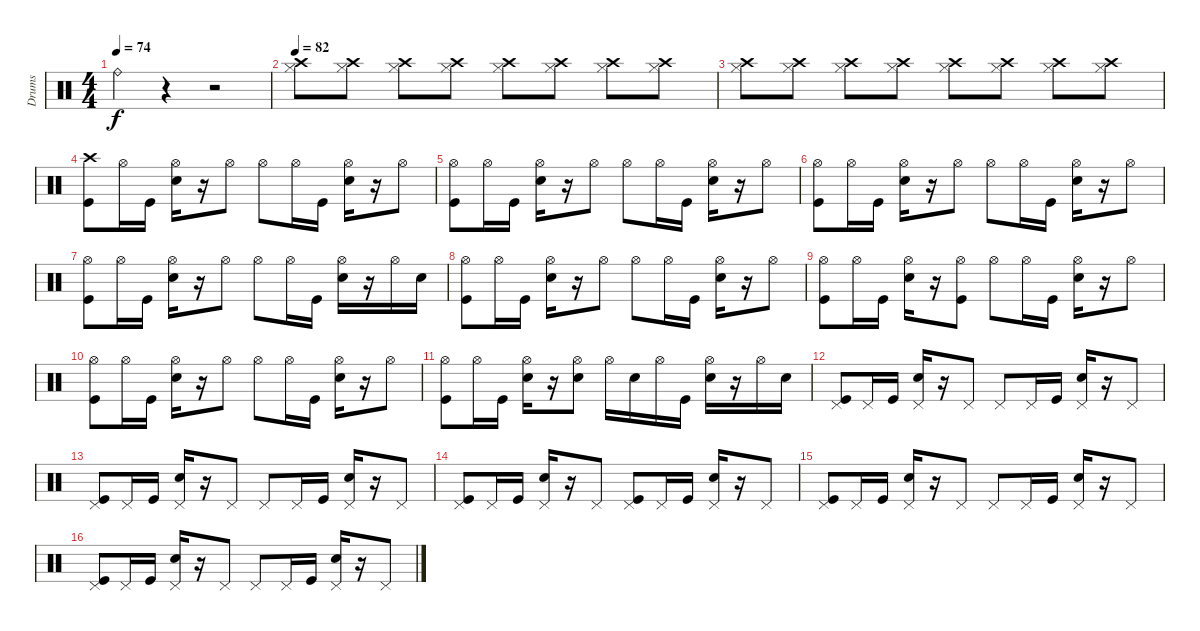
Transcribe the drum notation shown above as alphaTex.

\track ("Drums" "Drums") {instrument percussion}
\staff {score}
\articulation defaults
\ts (4 4)
\tempo 74
\clef neutral
\ks c "Ride (bell)".4{dy f}
r.4 r.2{volume 0} |
\tempo 82
("Crash high (hit)" "Hi-Hat (closed)").8{volume 16} ("Crash high (hit)" "Hi-Hat (closed)").8 ("Crash high (hit)" "Hi-Hat (closed)").8 ("Crash high (hit)" "Hi-Hat (closed)").8 ("Crash high (hit)" "Hi-Hat (closed)").8 ("Crash high (hit)" "Hi-Hat (closed)").8 ("Crash high (hit)" "Hi-Hat (closed)").8 ("Crash high (hit)" "Hi-Hat (closed)").8 |
("Crash high (hit)" "Hi-Hat (closed)").8 ("Crash high (hit)" "Hi-Hat (closed)").8 ("Crash high (hit)" "Hi-Hat (closed)").8 ("Crash high (hit)" "Hi-Hat (closed)").8 ("Crash high (hit)" "Hi-Hat (closed)").8 ("Crash high (hit)" "Hi-Hat (closed)").8 ("Crash high (hit)" "Hi-Hat (closed)").8 ("Crash high (hit)" "Hi-Hat (closed)").8 |
("Crash high (hit)" "Kick (hit)").8 "Hi-Hat (open)".16 "Kick (hit)".16 ("Hi-Hat (open)" "Snare (hit) 2").16 r.16 "Hi-Hat (open)".8 "Hi-Hat (open)".8 "Hi-Hat (open)".16 "Kick (hit)".16 ("Hi-Hat (open)" "Snare (hit) 2").16 r.16 "Hi-Hat (open)".8 |
("Hi-Hat (open)" "Kick (hit)").8 "Hi-Hat (open)".16 "Kick (hit)".16 ("Hi-Hat (open)" "Snare (hit) 2").16 r.16 "Hi-Hat (open)".8 "Hi-Hat (open)".8 "Hi-Hat (open)".16 "Kick (hit)".16 ("Hi-Hat (open)" "Snare (hit) 2").16 r.16 "Hi-Hat (open)".8 |
("Hi-Hat (open)" "Kick (hit)").8 "Hi-Hat (open)".16 "Kick (hit)".16 ("Hi-Hat (open)" "Snare (hit) 2").16 r.16 "Hi-Hat (open)".8 "Hi-Hat (open)".8 "Hi-Hat (open)".16 "Kick (hit)".16 ("Hi-Hat (open)" "Snare (hit) 2").16 r.16 "Hi-Hat (open)".8 |
("Hi-Hat (open)" "Kick (hit)").8 "Hi-Hat (open)".16 "Kick (hit)".16 ("Hi-Hat (open)" "Snare (hit) 2").16 r.16 "Hi-Hat (open)".8 "Hi-Hat (open)".8 "Hi-Hat (open)".16 "Kick (hit)".16 ("Hi-Hat (open)" "Snare (hit) 2").16 r.16 "Hi-Hat (open)".16 "Snare (hit) 2".16 |
("Hi-Hat (open)" "Kick (hit)").8 "Hi-Hat (open)".16 "Kick (hit)".16 ("Hi-Hat (open)" "Snare (hit) 2").16 r.16 "Hi-Hat (open)".8 "Hi-Hat (open)".8 "Hi-Hat (open)".16 "Kick (hit)".16 ("Hi-Hat (open)" "Snare (hit) 2").16 r.16 "Hi-Hat (open)".8 |
("Hi-Hat (open)" "Kick (hit)").8 "Hi-Hat (open)".16 "Kick (hit)".16 ("Hi-Hat (open)" "Snare (hit) 2").16 r.16 ("Hi-Hat (open)" "Kick (hit)").8 "Hi-Hat (open)".8 "Hi-Hat (open)".16 "Kick (hit)".16 ("Hi-Hat (open)" "Snare (hit) 2").16 r.16 "Hi-Hat (open)".8 |
("Hi-Hat (open)" "Kick (hit)").8 "Hi-Hat (open)".16 "Kick (hit)".16 ("Hi-Hat (open)" "Snare (hit) 2").16 r.16 "Hi-Hat (open)".8 "Hi-Hat (open)".8 "Hi-Hat (open)".16 "Kick (hit)".16 ("Hi-Hat (open)" "Snare (hit) 2").16 r.16 "Hi-Hat (open)".8 |
("Hi-Hat (open)" "Kick (hit)").8 "Hi-Hat (open)".16 "Kick (hit)".16 ("Hi-Hat (open)" "Snare (hit) 2").16 r.16 ("Hi-Hat (open)" "Snare (hit) 2").8 "Hi-Hat (open)".16 "Snare (hit) 2".16 "Hi-Hat (open)".16 "Kick (hit)".16 ("Hi-Hat (open)" "Snare (hit) 2").16 r.16 "Hi-Hat (open)".16 "Snare (hit) 2".16 |
("Pedal Hi-Hat (hit)" "Kick (hit)").8 "Pedal Hi-Hat (hit)".16 "Kick (hit)".16 ("Pedal Hi-Hat (hit)" "Snare (hit) 2").16 r.16 "Pedal Hi-Hat (hit)".8 "Pedal Hi-Hat (hit)".8 "Pedal Hi-Hat (hit)".16 "Kick (hit)".16 ("Pedal Hi-Hat (hit)" "Snare (hit) 2").16 r.16 "Pedal Hi-Hat (hit)".8 |
("Pedal Hi-Hat (hit)" "Kick (hit)").8 "Pedal Hi-Hat (hit)".16 "Kick (hit)".16 ("Pedal Hi-Hat (hit)" "Snare (hit) 2").16 r.16 "Pedal Hi-Hat (hit)".8 "Pedal Hi-Hat (hit)".8 "Pedal Hi-Hat (hit)".16 "Kick (hit)".16 ("Pedal Hi-Hat (hit)" "Snare (hit) 2").16 r.16 "Pedal Hi-Hat (hit)".8 |
("Pedal Hi-Hat (hit)" "Kick (hit)").8 "Pedal Hi-Hat (hit)".16 "Kick (hit)".16 ("Pedal Hi-Hat (hit)" "Snare (hit) 2").16 r.16 "Pedal Hi-Hat (hit)".8 ("Pedal Hi-Hat (hit)" "Kick (hit)").8 "Pedal Hi-Hat (hit)".16 "Kick (hit)".16 ("Pedal Hi-Hat (hit)" "Snare (hit) 2").16 r.16 "Pedal Hi-Hat (hit)".8 |
("Pedal Hi-Hat (hit)" "Kick (hit)").8 "Pedal Hi-Hat (hit)".16 "Kick (hit)".16 ("Pedal Hi-Hat (hit)" "Snare (hit) 2").16 r.16 "Pedal Hi-Hat (hit)".8 "Pedal Hi-Hat (hit)".8 "Pedal Hi-Hat (hit)".16 "Kick (hit)".16 ("Pedal Hi-Hat (hit)" "Snare (hit) 2").16 r.16 "Pedal Hi-Hat (hit)".8 |
("Pedal Hi-Hat (hit)" "Kick (hit)").8 "Pedal Hi-Hat (hit)".16 "Kick (hit)".16 ("Pedal Hi-Hat (hit)" "Snare (hit) 2").16 r.16 "Pedal Hi-Hat (hit)".8 "Pedal Hi-Hat (hit)".8 "Pedal Hi-Hat (hit)".16 "Kick (hit)".16 ("Pedal Hi-Hat (hit)" "Snare (hit) 2").16 r.16 "Pedal Hi-Hat (hit)".8
